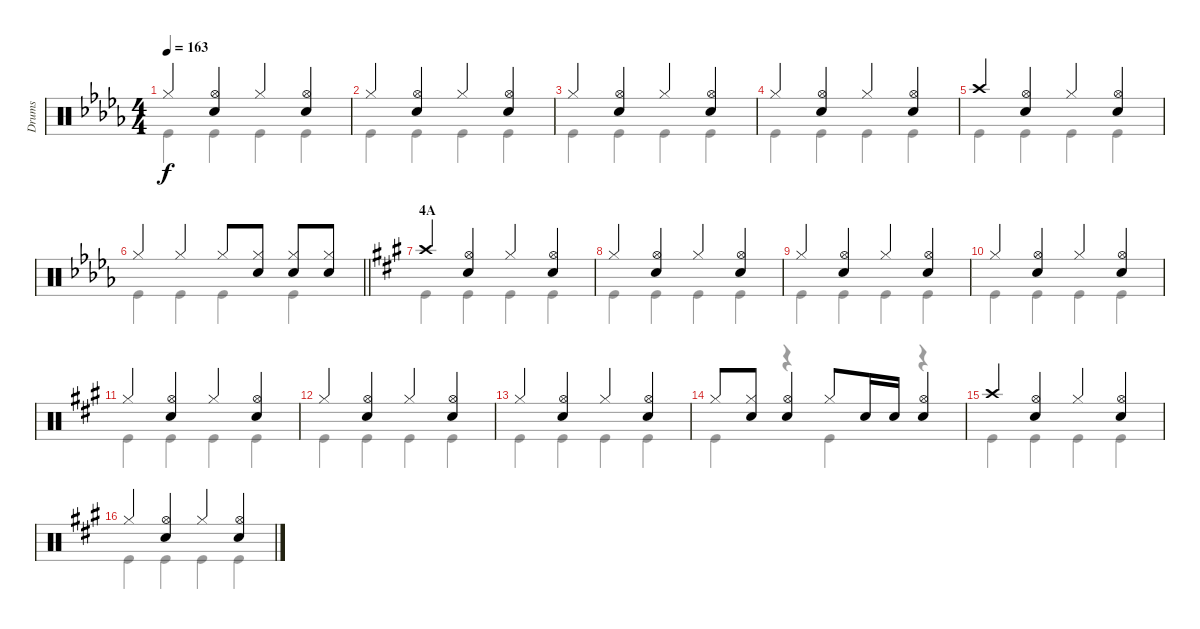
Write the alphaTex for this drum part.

\track ("Drums" "Drums") {instrument percussion}
\staff {score}
\articulation defaults
\voice
\ts (4 4)
\tempo 163
\clef neutral
\ks db "Hi-Hat (closed)".4{dy f}
("Hi-Hat (open)" "Snare (hit) 2").4 "Hi-Hat (closed)".4 ("Hi-Hat (open)" "Snare (hit) 2").4 |
"Hi-Hat (closed)".4 ("Hi-Hat (open)" "Snare (hit) 2").4 "Hi-Hat (closed)".4 ("Hi-Hat (open)" "Snare (hit) 2").4 |
"Hi-Hat (closed)".4 ("Hi-Hat (open)" "Snare (hit) 2").4 "Hi-Hat (closed)".4 ("Hi-Hat (open)" "Snare (hit) 2").4 |
"Hi-Hat (closed)".4 ("Hi-Hat (open)" "Snare (hit) 2").4 "Hi-Hat (closed)".4 ("Hi-Hat (open)" "Snare (hit) 2").4 |
"Crash high (hit)".4 ("Hi-Hat (open)" "Snare (hit) 2").4 "Hi-Hat (closed)".4 ("Hi-Hat (open)" "Snare (hit) 2").4 |
\barLineRight lightlight "Hi-Hat (closed)".4 "Hi-Hat (closed)".4 "Hi-Hat (closed)".8
("Hi-Hat (closed)" "Snare (hit) 2").8 ("Hi-Hat (closed)" "Snare (hit) 2").8 ("Hi-Hat (closed)" "Snare (hit) 2").8 |
\section ("" "4A")
\ks a "Crash high (hit)".4
("Hi-Hat (open)" "Snare (hit) 2").4 "Hi-Hat (closed)".4 ("Hi-Hat (open)" "Snare (hit) 2").4 |
"Hi-Hat (closed)".4 ("Hi-Hat (open)" "Snare (hit) 2").4 "Hi-Hat (closed)".4 ("Hi-Hat (open)" "Snare (hit) 2").4 |
"Hi-Hat (closed)".4 ("Hi-Hat (open)" "Snare (hit) 2").4 "Hi-Hat (closed)".4 ("Hi-Hat (open)" "Snare (hit) 2").4 |
"Hi-Hat (closed)".4 ("Hi-Hat (open)" "Snare (hit) 2").4 "Hi-Hat (closed)".4 ("Hi-Hat (open)" "Snare (hit) 2").4 |
"Hi-Hat (closed)".4 ("Hi-Hat (open)" "Snare (hit) 2").4 "Hi-Hat (closed)".4 ("Hi-Hat (open)" "Snare (hit) 2").4 |
"Hi-Hat (closed)".4 ("Hi-Hat (open)" "Snare (hit) 2").4 "Hi-Hat (closed)".4 ("Hi-Hat (open)" "Snare (hit) 2").4 |
"Hi-Hat (closed)".4 ("Hi-Hat (open)" "Snare (hit) 2").4 "Hi-Hat (closed)".4 ("Hi-Hat (open)" "Snare (hit) 2").4 |
"Hi-Hat (closed)".8 ("Hi-Hat (closed)" "Snare (hit) 2").8 ("Hi-Hat (open)" "Snare (hit) 2").4 "Hi-Hat (closed)".8 "Snare (hit) 2".16 "Snare (hit) 2".16 ("Hi-Hat (open)" "Snare (hit) 2").4 |
"Crash high (hit)".4 ("Hi-Hat (open)" "Snare (hit) 2").4 "Hi-Hat (closed)".4 ("Hi-Hat (open)" "Snare (hit) 2").4 |
"Hi-Hat (closed)".4 ("Hi-Hat (open)" "Snare (hit) 2").4 "Hi-Hat (closed)".4 ("Hi-Hat (open)" "Snare (hit) 2").4
\voice
\clef neutral
\ottava regular
\simile none
\ks db "Kick (hit)".4{dy f} "Kick (hit)".4 "Kick (hit)".4 "Kick (hit)".4
|
"Kick (hit)".4 "Kick (hit)".4 "Kick (hit)".4 "Kick (hit)".4 |
"Kick (hit)".4 "Kick (hit)".4 "Kick (hit)".4 "Kick (hit)".4 |
"Kick (hit)".4 "Kick (hit)".4 "Kick (hit)".4 "Kick (hit)".4 |
"Kick (hit)".4 "Kick (hit)".4 "Kick (hit)".4 "Kick (hit)".4 |
\barLineRight lightlight "Kick (hit)".4 "Kick (hit)".4 "Kick (hit)".4 "Kick (hit)".4
|
\ks a "Kick (hit)".4 "Kick (hit)".4 "Kick (hit)".4 "Kick (hit)".4
|
"Kick (hit)".4 "Kick (hit)".4 "Kick (hit)".4 "Kick (hit)".4 |
"Kick (hit)".4 "Kick (hit)".4 "Kick (hit)".4 "Kick (hit)".4 |
"Kick (hit)".4 "Kick (hit)".4 "Kick (hit)".4 "Kick (hit)".4 |
"Kick (hit)".4 "Kick (hit)".4 "Kick (hit)".4 "Kick (hit)".4 |
"Kick (hit)".4 "Kick (hit)".4 "Kick (hit)".4 "Kick (hit)".4 |
"Kick (hit)".4 "Kick (hit)".4 "Kick (hit)".4 "Kick (hit)".4 |
"Kick (hit)".4 r.4 "Kick (hit)".4 r.4 |
"Kick (hit)".4 "Kick (hit)".4 "Kick (hit)".4 "Kick (hit)".4 |
"Kick (hit)".4 "Kick (hit)".4 "Kick (hit)".4 "Kick (hit)".4
